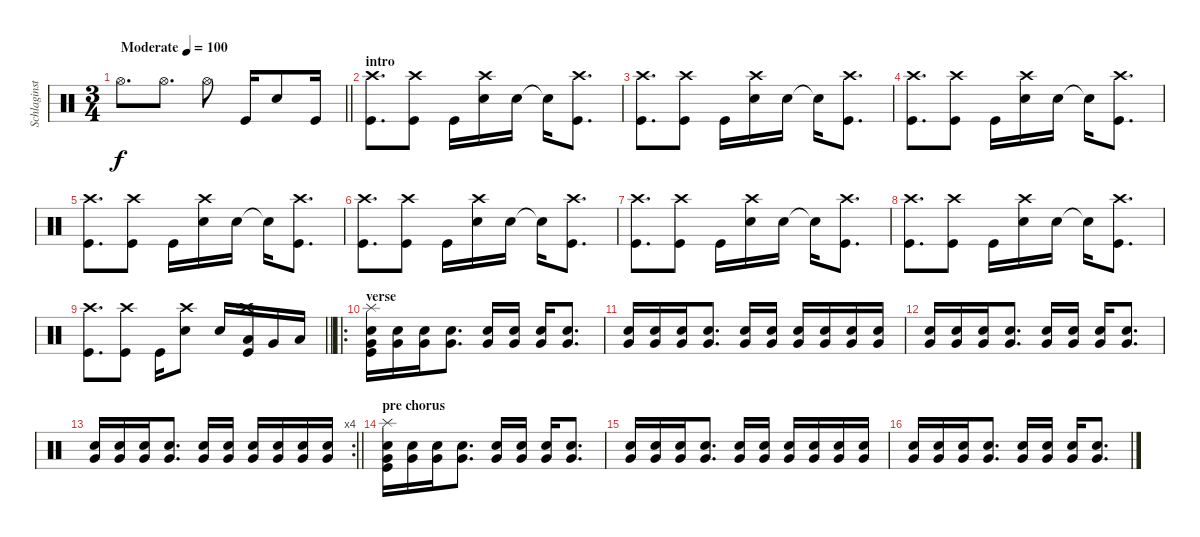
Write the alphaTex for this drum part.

\track ("Schlaginstrumente - Auswahl" "Schlaginst") {instrument percussion}
\staff {score}
\articulation defaults
\ts (3 4)
\tempo (100 "Moderate")
\clef neutral
\barLineRight lightlight
\ks c "Hi-Hat (open)".8{d dy f} "Hi-Hat (open)".8{d} "Hi-Hat (open)".8 "Kick (hit)".16 "Snare (hit) 2".8 "Kick (hit)".16
|
\section ("" "intro")
("Crash high (hit)" "Kick (hit)").8{d} ("Crash high (hit)" "Kick (hit)").8 "Kick (hit)".16 ("Crash high (hit)" "Snare (hit) 2").16 "Snare (hit) 2".16 "Snare (hit) 2"{t}.16 ("Crash high (hit)" "Kick (hit)").8{d} |
("Crash high (hit)" "Kick (hit)").8{d} ("Crash high (hit)" "Kick (hit)").8 "Kick (hit)".16 ("Crash high (hit)" "Snare (hit) 2").16 "Snare (hit) 2".16 "Snare (hit) 2"{t}.16 ("Crash high (hit)" "Kick (hit)").8{d} |
("Crash high (hit)" "Kick (hit)").8{d} ("Crash high (hit)" "Kick (hit)").8 "Kick (hit)".16 ("Crash high (hit)" "Snare (hit) 2").16 "Snare (hit) 2".16 "Snare (hit) 2"{t}.16 ("Crash high (hit)" "Kick (hit)").8{d} |
("Crash high (hit)" "Kick (hit)").8{d} ("Crash high (hit)" "Kick (hit)").8 "Kick (hit)".16 ("Crash high (hit)" "Snare (hit) 2").16 "Snare (hit) 2".16 "Snare (hit) 2"{t}.16 ("Crash high (hit)" "Kick (hit)").8{d} |
("Crash high (hit)" "Kick (hit)").8{d} ("Crash high (hit)" "Kick (hit)").8 "Kick (hit)".16 ("Crash high (hit)" "Snare (hit) 2").16 "Snare (hit) 2".16 "Snare (hit) 2"{t}.16 ("Crash high (hit)" "Kick (hit)").8{d} |
("Crash high (hit)" "Kick (hit)").8{d} ("Crash high (hit)" "Kick (hit)").8 "Kick (hit)".16 ("Crash high (hit)" "Snare (hit) 2").16 "Snare (hit) 2".16 "Snare (hit) 2"{t}.16 ("Crash high (hit)" "Kick (hit)").8{d} |
("Crash high (hit)" "Kick (hit)").8{d} ("Crash high (hit)" "Kick (hit)").8 "Kick (hit)".16 ("Crash high (hit)" "Snare (hit) 2").16 "Snare (hit) 2".16 "Snare (hit) 2"{t}.16 ("Crash high (hit)" "Kick (hit)").8{d} |
\barLineRight lightlight
("Crash high (hit)" "Kick (hit)").8{d} ("Crash high (hit)" "Kick (hit)").8 "Kick (hit)".16 ("Crash high (hit)" "Snare (hit) 2").8 "Snare (hit) 2".16 ("Crash high (hit)" "Low Tom (hit)" "Kick (hit)").16 "Very Low Tom (hit)".16 "Low Floor Tom (hit)".16 |
\ro
\section ("" "verse")
("Splash (hit)" "Snare (hit) 2" "Very Low Tom (hit)" "Kick (hit)").16{volume 8} ("Snare (hit) 2" "Very Low Tom (hit)").16 ("Snare (hit) 2" "Very Low Tom (hit)").16 ("Snare (hit) 2" "Very Low Tom (hit)").8{d} ("Snare (hit) 2" "Very Low Tom (hit)").16 ("Snare (hit) 2" "Very Low Tom (hit)").16 ("Snare (hit) 2" "Very Low Tom (hit)").16 ("Snare (hit) 2" "Very Low Tom (hit)").8{d} |
("Snare (hit) 2" "Very Low Tom (hit)").16 ("Snare (hit) 2" "Very Low Tom (hit)").16 ("Snare (hit) 2" "Very Low Tom (hit)").16 ("Snare (hit) 2" "Very Low Tom (hit)").8{d} ("Snare (hit) 2" "Very Low Tom (hit)").16 ("Snare (hit) 2" "Very Low Tom (hit)").16 ("Snare (hit) 2" "Very Low Tom (hit)").16 ("Snare (hit) 2" "Very Low Tom (hit)").16 ("Snare (hit) 2" "Very Low Tom (hit)").16 ("Snare (hit) 2" "Very Low Tom (hit)").16 |
("Snare (hit) 2" "Very Low Tom (hit)").16 ("Snare (hit) 2" "Very Low Tom (hit)").16 ("Snare (hit) 2" "Very Low Tom (hit)").16 ("Snare (hit) 2" "Very Low Tom (hit)").8{d} ("Snare (hit) 2" "Very Low Tom (hit)").16 ("Snare (hit) 2" "Very Low Tom (hit)").16 ("Snare (hit) 2" "Very Low Tom (hit)").16 ("Snare (hit) 2" "Very Low Tom (hit)").8{d} |
\rc 4
\barLineRight lightlight
("Snare (hit) 2" "Very Low Tom (hit)").16 ("Snare (hit) 2" "Very Low Tom (hit)").16 ("Snare (hit) 2" "Very Low Tom (hit)").16 ("Snare (hit) 2" "Very Low Tom (hit)").8{d} ("Snare (hit) 2" "Very Low Tom (hit)").16 ("Snare (hit) 2" "Very Low Tom (hit)").16 ("Snare (hit) 2" "Very Low Tom (hit)").16 ("Snare (hit) 2" "Very Low Tom (hit)").16 ("Snare (hit) 2" "Very Low Tom (hit)").16 ("Snare (hit) 2" "Very Low Tom (hit)").16 |
\section ("" "pre chorus")
("Splash (hit)" "Snare (hit) 2" "Very Low Tom (hit)" "Kick (hit)").16 ("Snare (hit) 2" "Very Low Tom (hit)").16 ("Snare (hit) 2" "Very Low Tom (hit)").16 ("Snare (hit) 2" "Very Low Tom (hit)").8{d} ("Snare (hit) 2" "Very Low Tom (hit)").16 ("Snare (hit) 2" "Very Low Tom (hit)").16 ("Snare (hit) 2" "Very Low Tom (hit)").16 ("Snare (hit) 2" "Very Low Tom (hit)").8{d} |
("Snare (hit) 2" "Very Low Tom (hit)").16 ("Snare (hit) 2" "Very Low Tom (hit)").16 ("Snare (hit) 2" "Very Low Tom (hit)").16 ("Snare (hit) 2" "Very Low Tom (hit)").8{d} ("Snare (hit) 2" "Very Low Tom (hit)").16 ("Snare (hit) 2" "Very Low Tom (hit)").16 ("Snare (hit) 2" "Very Low Tom (hit)").16 ("Snare (hit) 2" "Very Low Tom (hit)").16 ("Snare (hit) 2" "Very Low Tom (hit)").16 ("Snare (hit) 2" "Very Low Tom (hit)").16 |
("Snare (hit) 2" "Very Low Tom (hit)").16 ("Snare (hit) 2" "Very Low Tom (hit)").16 ("Snare (hit) 2" "Very Low Tom (hit)").16 ("Snare (hit) 2" "Very Low Tom (hit)").8{d} ("Snare (hit) 2" "Very Low Tom (hit)").16 ("Snare (hit) 2" "Very Low Tom (hit)").16 ("Snare (hit) 2" "Very Low Tom (hit)").16 ("Snare (hit) 2" "Very Low Tom (hit)").8{d}
